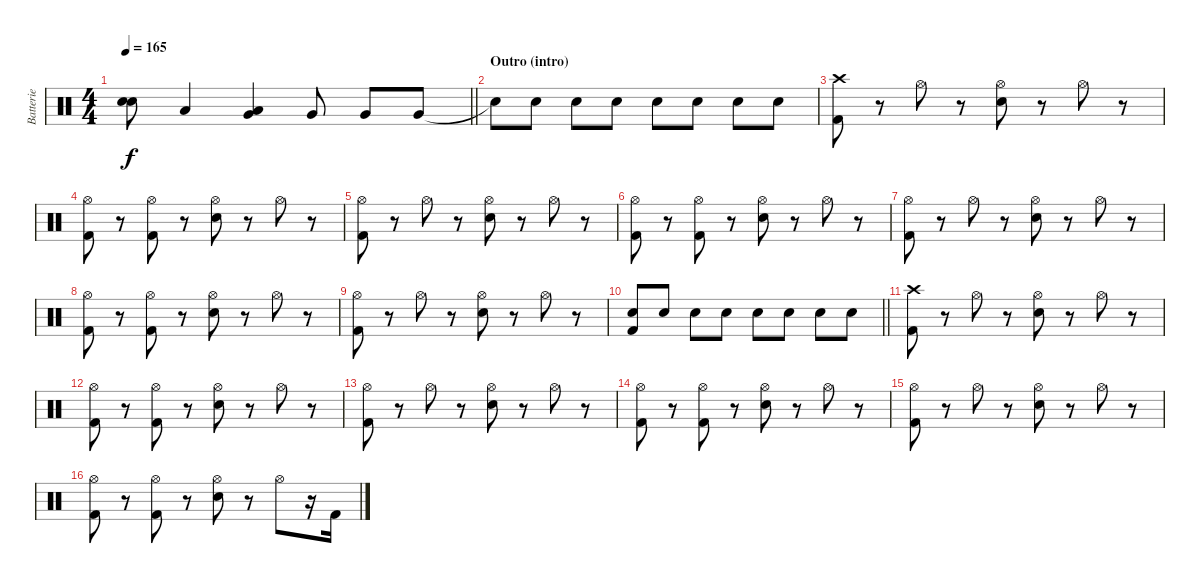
\track ("Batterie" "Batterie") {instrument percussion}
\staff {score}
\articulation defaults
\ts (4 4)
\tempo 165
\clef neutral
\barLineRight lightlight
\ks c
("Electric Snare (hit)" "Electric Snare (hit)").8{bu 120 dy f} "Low Tom (hit)".4 ("Low Tom (hit)" "Very Low Tom (hit)").4{bu 120} "Very Low Tom (hit)".8 "Very Low Tom (hit)".8 "Very Low Tom (hit)".8 |
\section ("" "Outro (intro)")
"Snare (hit)"{t}.8 "Electric Snare (hit)".8 "Electric Snare (hit)".8 "Electric Snare (hit)".8 "Electric Snare (hit)".8 "Electric Snare (hit)".8 "Electric Snare (hit)".8 "Electric Snare (hit)".8 |
("Crash high (hit)" "Kick (hit) 2").8 r.8 "Hi-Hat (open)".8 r.8 ("Hi-Hat (open)" "Electric Snare (hit)").8 r.8 "Hi-Hat (open)".8 r.8 |
("Hi-Hat (open)" "Kick (hit) 2").8 r.8 ("Hi-Hat (open)" "Kick (hit) 2").8 r.8 ("Hi-Hat (open)" "Electric Snare (hit)").8 r.8 "Hi-Hat (open)".8 r.8 |
("Hi-Hat (open)" "Kick (hit) 2").8 r.8 "Hi-Hat (open)".8 r.8 ("Hi-Hat (open)" "Electric Snare (hit)").8 r.8 "Hi-Hat (open)".8 r.8 |
("Hi-Hat (open)" "Kick (hit) 2").8 r.8 ("Hi-Hat (open)" "Kick (hit) 2").8 r.8 ("Hi-Hat (open)" "Electric Snare (hit)").8 r.8 "Hi-Hat (open)".8 r.8 |
("Hi-Hat (open)" "Kick (hit) 2").8 r.8 "Hi-Hat (open)".8 r.8 ("Hi-Hat (open)" "Electric Snare (hit)").8 r.8 "Hi-Hat (open)".8 r.8 |
("Hi-Hat (open)" "Kick (hit) 2").8 r.8 ("Hi-Hat (open)" "Kick (hit) 2").8 r.8 ("Hi-Hat (open)" "Electric Snare (hit)").8 r.8 "Hi-Hat (open)".8 r.8 |
("Hi-Hat (open)" "Kick (hit) 2").8 r.8 "Hi-Hat (open)".8 r.8 ("Hi-Hat (open)" "Electric Snare (hit)").8 r.8 "Hi-Hat (open)".8 r.8 |
\barLineRight lightlight
("Electric Snare (hit)" "Kick (hit) 2").8 "Electric Snare (hit)".8 "Electric Snare (hit)".8 "Electric Snare (hit)".8 "Electric Snare (hit)".8 "Electric Snare (hit)".8 "Electric Snare (hit)".8 "Electric Snare (hit)".8 |
("Crash high (hit)" "Kick (hit) 2").8 r.8 "Hi-Hat (open)".8 r.8 ("Hi-Hat (open)" "Electric Snare (hit)").8 r.8 "Hi-Hat (open)".8 r.8 |
("Hi-Hat (open)" "Kick (hit) 2").8 r.8 ("Hi-Hat (open)" "Kick (hit) 2").8 r.8 ("Hi-Hat (open)" "Electric Snare (hit)").8 r.8 "Hi-Hat (open)".8 r.8 |
("Hi-Hat (open)" "Kick (hit) 2").8 r.8 "Hi-Hat (open)".8 r.8 ("Hi-Hat (open)" "Electric Snare (hit)").8 r.8 "Hi-Hat (open)".8 r.8 |
("Hi-Hat (open)" "Kick (hit) 2").8 r.8 ("Hi-Hat (open)" "Kick (hit) 2").8 r.8 ("Hi-Hat (open)" "Electric Snare (hit)").8 r.8 "Hi-Hat (open)".8 r.8 |
("Hi-Hat (open)" "Kick (hit) 2").8 r.8 "Hi-Hat (open)".8 r.8 ("Hi-Hat (open)" "Electric Snare (hit)").8 r.8 "Hi-Hat (open)".8 r.8 |
("Hi-Hat (open)" "Kick (hit) 2").8 r.8 ("Hi-Hat (open)" "Kick (hit) 2").8 r.8 ("Hi-Hat (open)" "Electric Snare (hit)").8 r.8 "Hi-Hat (open)".8 r.16 "Kick (hit) 2".16
